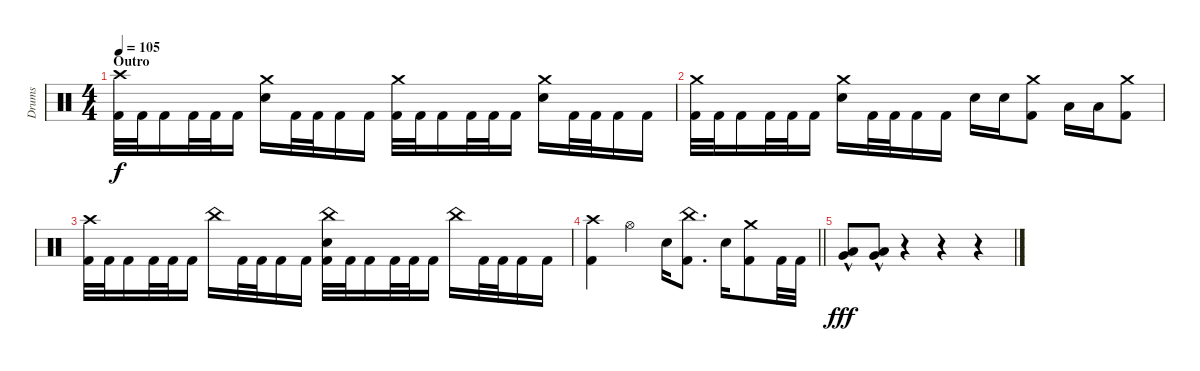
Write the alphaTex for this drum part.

\track ("Drums" "Drums") {instrument percussion}
\staff {score}
\articulation defaults
\ts (4 4)
\section ("" "Outro")
\tempo 105
\clef neutral
\ks c
("Crash high (hit)" "Kick (hit) 2").32{dy f} "Kick (hit) 2".32 "Kick (hit) 2".16 "Kick (hit) 2".32 "Kick (hit) 2".32 "Kick (hit) 2".16 ("Crash medium (hit)" "Electric Snare (hit)").16 "Kick (hit) 2".32 "Kick (hit) 2".32 "Kick (hit) 2".16 "Kick (hit) 2".16 ("Crash medium (hit)" "Kick (hit) 2").32 "Kick (hit) 2".32 "Kick (hit) 2".16 "Kick (hit) 2".32 "Kick (hit) 2".32 "Kick (hit) 2".16 ("Crash medium (hit)" "Electric Snare (hit)").16 "Kick (hit) 2".32 "Kick (hit) 2".32 "Kick (hit) 2".16 "Kick (hit) 2".16 |
("Crash medium (hit)" "Kick (hit) 2").32 "Kick (hit) 2".32 "Kick (hit) 2".16 "Kick (hit) 2".32 "Kick (hit) 2".32 "Kick (hit) 2".16 ("Crash medium (hit)" "Electric Snare (hit)").16 "Kick (hit) 2".32 "Kick (hit) 2".32 "Kick (hit) 2".16 "Kick (hit) 2".16 "Electric Snare (hit)".16 "Electric Snare (hit)".16 ("Crash medium (hit)" "Kick (hit) 2").8 "Low Tom (hit)".16 "Low Tom (hit)".16 ("Crash medium (hit)" "Kick (hit) 2").8 |
("Crash high (hit)" "Kick (hit) 2").32 "Kick (hit) 2".32 "Kick (hit) 2".16 "Kick (hit) 2".32 "Kick (hit) 2".32 "Kick (hit) 2".16 "China (hit)".16 "Kick (hit) 2".32 "Kick (hit) 2".32 "Kick (hit) 2".16 "Kick (hit) 2".16 ("China (hit)" "Electric Snare (hit)" "Kick (hit) 2").32 "Kick (hit) 2".32 "Kick (hit) 2".16 "Kick (hit) 2".32 "Kick (hit) 2".32 "Kick (hit) 2".16 "China (hit)".16 "Kick (hit) 2".32 "Kick (hit) 2".32 "Kick (hit) 2".16 "Kick (hit) 2".16 |
\barLineRight lightlight
("Crash high (hit)" "Kick (hit) 2").4 "Hi-Hat (open)".4 "Electric Snare (hit)".16 ("China (hit)" "Kick (hit) 2").8{d} "Electric Snare (hit)".16 ("Crash medium (hit)" "Kick (hit) 2").8 "Kick (hit) 2".32 "Kick (hit) 2".32 |
("Very Low Tom (hit)"{hac} "Low Floor Tom (hit)"{hac}).8{dy fff} ("Very Low Tom (hit)"{hac} "Low Floor Tom (hit)"{hac}).8 r.4 r.4 r.4
